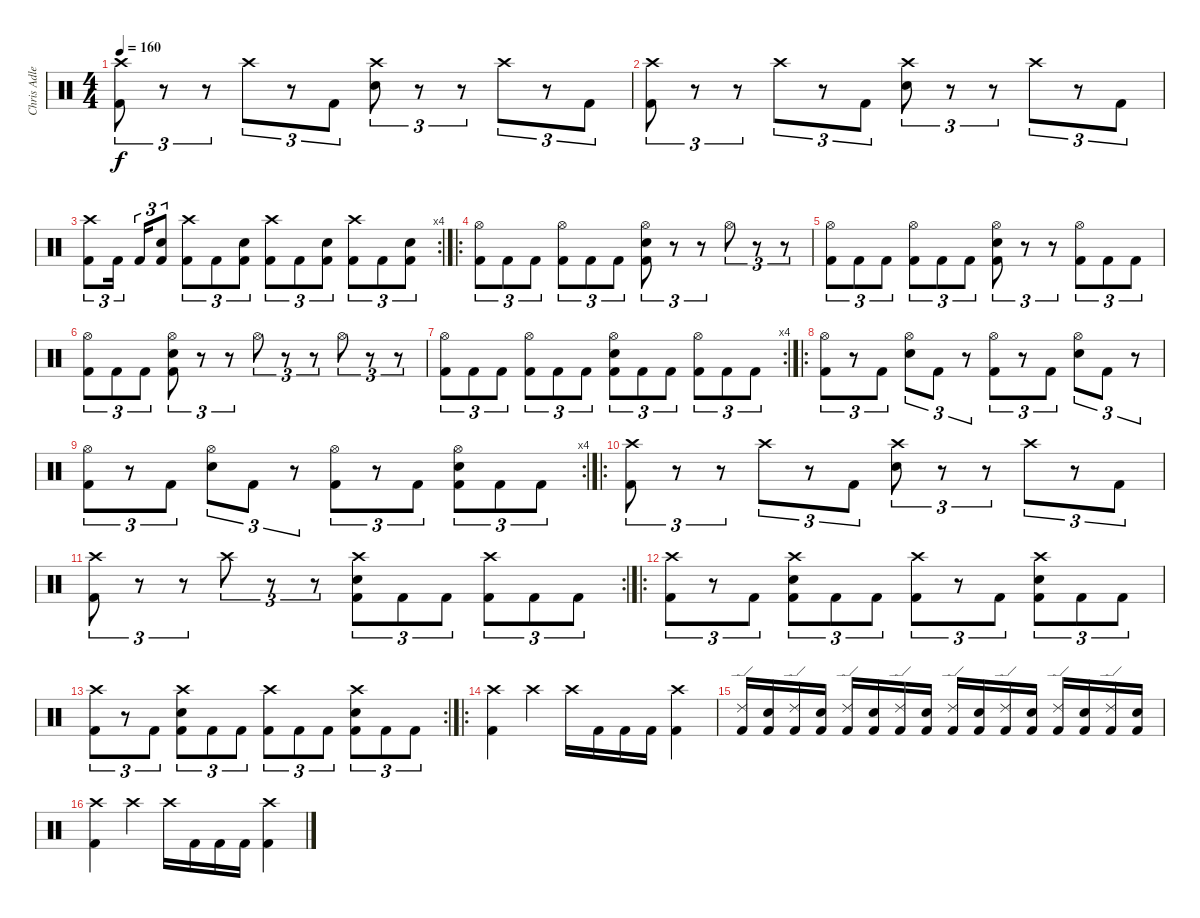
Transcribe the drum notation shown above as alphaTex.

\track ("Chris Adler" "Chris Adle") {instrument percussion}
\staff {score}
\articulation defaults
\ts (4 4)
\tempo 160
\clef neutral
\ks c
("Crash high (hit)" "Kick (hit) 2").8{tu (3 2) dy f} r.8{tu (3 2)} r.8{tu (3 2)} "Crash high (hit)".8{tu (3 2)} r.8{tu (3 2)} "Kick (hit) 2".8{tu (3 2)} ("Crash high (hit)" "Electric Snare (hit)").8{tu (3 2)} r.8{tu (3 2)} r.8{tu (3 2)} "Crash high (hit)".8{tu (3 2)} r.8{tu (3 2)} "Kick (hit) 2".8{tu (3 2)} |
("Crash high (hit)" "Kick (hit) 2").8{tu (3 2)} r.8{tu (3 2)} r.8{tu (3 2)} "Crash high (hit)".8{tu (3 2)} r.8{tu (3 2)} "Kick (hit) 2".8{tu (3 2)} ("Crash high (hit)" "Electric Snare (hit)").8{tu (3 2)} r.8{tu (3 2)} r.8{tu (3 2)} "Crash high (hit)".8{tu (3 2)} r.8{tu (3 2)} "Kick (hit) 2".8{tu (3 2)} |
\rc 4
("Crash high (hit)" "Kick (hit) 2").8{tu (3 2)} "Kick (hit) 2".16{tu (3 2)} "Kick (hit) 2".16{tu (3 2)} ("Electric Snare (hit)" "Kick (hit) 2").8{tu (3 2)} ("Crash high (hit)" "Kick (hit) 2").8{tu (3 2)} "Kick (hit) 2".8{tu (3 2)} ("Electric Snare (hit)" "Kick (hit) 2").8{tu (3 2)} ("Crash high (hit)" "Kick (hit) 2").8{tu (3 2)} "Kick (hit) 2".8{tu (3 2)} ("Electric Snare (hit)" "Kick (hit) 2").8{tu (3 2)} ("Crash high (hit)" "Kick (hit) 2").8{tu (3 2)} "Kick (hit) 2".8{tu (3 2)} ("Electric Snare (hit)" "Kick (hit) 2").8{tu (3 2)} |
\ro
("Hi-Hat (open)" "Kick (hit) 2").8{tu (3 2)} "Kick (hit) 2".8{tu (3 2)} "Kick (hit) 2".8{tu (3 2)} ("Hi-Hat (open)" "Kick (hit) 2").8{tu (3 2)} "Kick (hit) 2".8{tu (3 2)} "Kick (hit) 2".8{tu (3 2)} ("Hi-Hat (open)" "Electric Snare (hit)" "Kick (hit) 2").8{tu (3 2)} r.8{tu (3 2)} r.8{tu (3 2)} "Hi-Hat (open)".8{tu (3 2)} r.8{tu (3 2)} r.8{tu (3 2)} |
("Hi-Hat (open)" "Kick (hit) 2").8{tu (3 2)} "Kick (hit) 2".8{tu (3 2)} "Kick (hit) 2".8{tu (3 2)} ("Hi-Hat (open)" "Kick (hit) 2").8{tu (3 2)} "Kick (hit) 2".8{tu (3 2)} "Kick (hit) 2".8{tu (3 2)} ("Hi-Hat (open)" "Electric Snare (hit)" "Kick (hit) 2").8{tu (3 2)} r.8{tu (3 2)} r.8{tu (3 2)} ("Hi-Hat (open)" "Kick (hit) 2").8{tu (3 2)} "Kick (hit) 2".8{tu (3 2)} "Kick (hit) 2".8{tu (3 2)} |
("Hi-Hat (open)" "Kick (hit) 2").8{tu (3 2)} "Kick (hit) 2".8{tu (3 2)} "Kick (hit) 2".8{tu (3 2)} ("Hi-Hat (open)" "Electric Snare (hit)" "Kick (hit) 2").8{tu (3 2)} r.8{tu (3 2)} r.8{tu (3 2)} "Hi-Hat (open)".8{tu (3 2)} r.8{tu (3 2)} r.8{tu (3 2)} "Hi-Hat (open)".8{tu (3 2)} r.8{tu (3 2)} r.8{tu (3 2)} |
\rc 4
("Hi-Hat (open)" "Kick (hit) 2").8{tu (3 2)} "Kick (hit) 2".8{tu (3 2)} "Kick (hit) 2".8{tu (3 2)} ("Hi-Hat (open)" "Kick (hit) 2").8{tu (3 2)} "Kick (hit) 2".8{tu (3 2)} "Kick (hit) 2".8{tu (3 2)} ("Hi-Hat (open)" "Electric Snare (hit)" "Kick (hit) 2").8{tu (3 2)} "Kick (hit) 2".8{tu (3 2)} "Kick (hit) 2".8{tu (3 2)} ("Hi-Hat (open)" "Kick (hit) 2").8{tu (3 2)} "Kick (hit) 2".8{tu (3 2)} "Kick (hit) 2".8{tu (3 2)} |
\ro
("Hi-Hat (open)" "Kick (hit) 2").8{tu (3 2)} r.8{tu (3 2)} "Kick (hit) 2".8{tu (3 2)} ("Hi-Hat (open)" "Electric Snare (hit)").8{tu (3 2)} "Kick (hit) 2".8{tu (3 2)} r.8{tu (3 2)} ("Hi-Hat (open)" "Kick (hit) 2").8{tu (3 2)} r.8{tu (3 2)} "Kick (hit) 2".8{tu (3 2)} ("Hi-Hat (open)" "Electric Snare (hit)").8{tu (3 2)} "Kick (hit) 2".8{tu (3 2)} r.8{tu (3 2)} |
\rc 4
("Hi-Hat (open)" "Kick (hit) 2").8{tu (3 2)} r.8{tu (3 2)} "Kick (hit) 2".8{tu (3 2)} ("Hi-Hat (open)" "Electric Snare (hit)").8{tu (3 2)} "Kick (hit) 2".8{tu (3 2)} r.8{tu (3 2)} ("Hi-Hat (open)" "Kick (hit) 2").8{tu (3 2)} r.8{tu (3 2)} "Kick (hit) 2".8{tu (3 2)} ("Hi-Hat (open)" "Electric Snare (hit)" "Kick (hit) 2").8{tu (3 2)} "Kick (hit) 2".8{tu (3 2)} "Kick (hit) 2".8{tu (3 2)} |
\ro
("Crash high (hit)" "Kick (hit) 2").8{tu (3 2)} r.8{tu (3 2)} r.8{tu (3 2)} "Crash high (hit)".8{tu (3 2)} r.8{tu (3 2)} "Kick (hit) 2".8{tu (3 2)} ("Crash high (hit)" "Electric Snare (hit)").8{tu (3 2)} r.8{tu (3 2)} r.8{tu (3 2)} "Crash high (hit)".8{tu (3 2)} r.8{tu (3 2)} "Kick (hit) 2".8{tu (3 2)} |
\rc 2
("Crash high (hit)" "Kick (hit) 2").8{tu (3 2)} r.8{tu (3 2)} r.8{tu (3 2)} "Crash high (hit)".8{tu (3 2)} r.8{tu (3 2)} r.8{tu (3 2)} ("Crash high (hit)" "Electric Snare (hit)" "Kick (hit) 2").8{tu (3 2)} "Kick (hit) 2".8{tu (3 2)} "Kick (hit) 2".8{tu (3 2)} ("Crash high (hit)" "Kick (hit) 2").8{tu (3 2)} "Kick (hit) 2".8{tu (3 2)} "Kick (hit) 2".8{tu (3 2)} |
\ro
("Crash high (hit)" "Kick (hit) 2").8{tu (3 2)} r.8{tu (3 2)} "Kick (hit) 2".8{tu (3 2)} ("Crash high (hit)" "Electric Snare (hit)" "Kick (hit) 2").8{tu (3 2)} "Kick (hit) 2".8{tu (3 2)} "Kick (hit) 2".8{tu (3 2)} ("Crash high (hit)" "Kick (hit) 2").8{tu (3 2)} r.8{tu (3 2)} "Kick (hit) 2".8{tu (3 2)} ("Crash high (hit)" "Electric Snare (hit)" "Kick (hit) 2").8{tu (3 2)} "Kick (hit) 2".8{tu (3 2)} "Kick (hit) 2".8{tu (3 2)} |
\rc 2
("Crash high (hit)" "Kick (hit) 2").8{tu (3 2)} r.8{tu (3 2)} "Kick (hit) 2".8{tu (3 2)} ("Crash high (hit)" "Electric Snare (hit)" "Kick (hit) 2").8{tu (3 2)} "Kick (hit) 2".8{tu (3 2)} "Kick (hit) 2".8{tu (3 2)} ("Crash high (hit)" "Kick (hit) 2").8{tu (3 2)} "Kick (hit) 2".8{tu (3 2)} "Kick (hit) 2".8{tu (3 2)} ("Crash high (hit)" "Electric Snare (hit)" "Kick (hit) 2").8{tu (3 2)} "Kick (hit) 2".8{tu (3 2)} "Kick (hit) 2".8{tu (3 2)} |
\ro
("Crash high (hit)" "Kick (hit) 2").4 "Crash high (hit)".4 "Crash high (hit)".16 "Kick (hit) 2".16 "Kick (hit) 2".16 "Kick (hit) 2".16 ("Crash high (hit)" "Kick (hit) 2").4 |
("Ride (edge) 2" "Kick (hit) 2").16 ("Electric Snare (hit)" "Kick (hit) 2").16 ("Ride (edge) 2" "Kick (hit) 2").16 ("Electric Snare (hit)" "Kick (hit) 2").16 ("Ride (edge) 2" "Kick (hit) 2").16 ("Electric Snare (hit)" "Kick (hit) 2").16 ("Ride (edge) 2" "Kick (hit) 2").16 ("Electric Snare (hit)" "Kick (hit) 2").16 ("Ride (edge) 2" "Kick (hit) 2").16 ("Electric Snare (hit)" "Kick (hit) 2").16 ("Ride (edge) 2" "Kick (hit) 2").16 ("Electric Snare (hit)" "Kick (hit) 2").16 ("Ride (edge) 2" "Kick (hit) 2").16 ("Electric Snare (hit)" "Kick (hit) 2").16 ("Ride (edge) 2" "Kick (hit) 2").16 ("Electric Snare (hit)" "Kick (hit) 2").16 |
("Crash high (hit)" "Kick (hit) 2").4 "Crash high (hit)".4 "Crash high (hit)".16 "Kick (hit) 2".16 "Kick (hit) 2".16 "Kick (hit) 2".16 ("Crash high (hit)" "Kick (hit) 2").4
